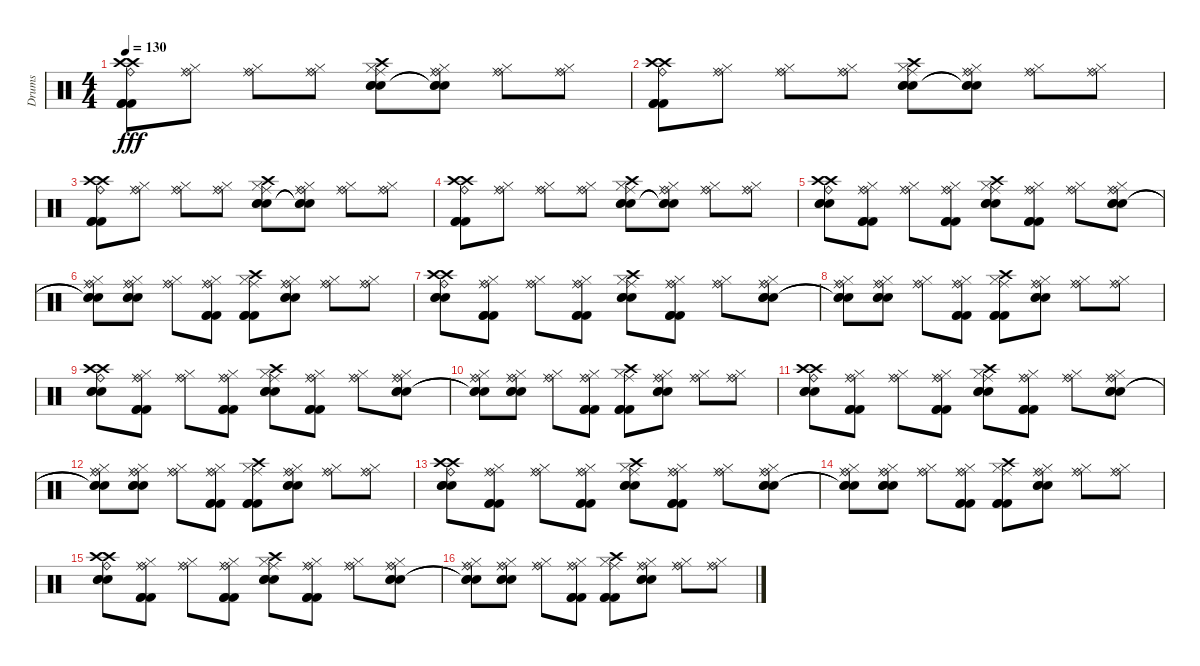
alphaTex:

\track ("Drums" "Drums") {instrument percussion}
\staff {score}
\articulation defaults
\ts (4 4)
\tempo 130
\clef neutral
\ks c
("Ride (bell)" "Crash high (hit)" "Crash high (hit)" "Kick (hit) 2" "Kick (hit) 2" "Kick (hit) 2").8{dy fff} ("Ride (bell)" "Ride (middle)" "Hi-Hat (closed)").8 ("Ride (bell)" "Ride (middle)" "Hi-Hat (closed)").8 ("Ride (bell)" "Ride (middle)" "Hi-Hat (closed)").8 ("Crash high (hit)" "Ride (middle)" "Hi-Hat (closed)" "Snare (hit) 2" "Snare (hit) 2" "Snare (hit) 2").8 ("Ride (bell)" "Ride (middle)" "Hi-Hat (closed)" "Snare (hit)"{t} "Snare (hit)"{t} "Snare (hit)"{t}).8 ("Ride (bell)" "Ride (middle)" "Hi-Hat (closed)").8 ("Ride (bell)" "Ride (middle)" "Hi-Hat (closed)").8 |
("Ride (bell)" "Crash high (hit)" "Crash high (hit)" "Kick (hit) 2" "Kick (hit) 2" "Kick (hit) 2").8 ("Ride (bell)" "Ride (middle)" "Hi-Hat (closed)").8 ("Ride (bell)" "Ride (middle)" "Hi-Hat (closed)").8 ("Ride (bell)" "Ride (middle)" "Hi-Hat (closed)").8 ("Crash high (hit)" "Ride (middle)" "Hi-Hat (closed)" "Snare (hit) 2" "Snare (hit) 2" "Snare (hit) 2").8 ("Ride (bell)" "Ride (middle)" "Hi-Hat (closed)" "Snare (hit)"{t} "Snare (hit)"{t} "Snare (hit)"{t}).8 ("Ride (bell)" "Ride (middle)" "Hi-Hat (closed)").8 ("Ride (bell)" "Ride (middle)" "Hi-Hat (closed)").8 |
("Ride (bell)" "Crash high (hit)" "Crash high (hit)" "Kick (hit) 2" "Kick (hit) 2" "Kick (hit) 2").8 ("Ride (bell)" "Ride (middle)" "Hi-Hat (closed)").8 ("Ride (bell)" "Ride (middle)" "Hi-Hat (closed)").8 ("Ride (bell)" "Ride (middle)" "Hi-Hat (closed)").8 ("Crash high (hit)" "Ride (middle)" "Hi-Hat (closed)" "Snare (hit) 2" "Snare (hit) 2" "Snare (hit) 2").8 ("Ride (bell)" "Ride (middle)" "Hi-Hat (closed)" "Snare (hit)"{t} "Snare (hit)"{t} "Snare (hit)"{t}).8 ("Ride (bell)" "Ride (middle)" "Hi-Hat (closed)").8 ("Ride (bell)" "Ride (middle)" "Hi-Hat (closed)").8 |
("Ride (bell)" "Crash high (hit)" "Crash high (hit)" "Kick (hit) 2" "Kick (hit) 2" "Kick (hit) 2").8 ("Ride (bell)" "Ride (middle)" "Hi-Hat (closed)").8 ("Ride (bell)" "Ride (middle)" "Hi-Hat (closed)").8 ("Ride (bell)" "Ride (middle)" "Hi-Hat (closed)").8 ("Crash high (hit)" "Ride (middle)" "Hi-Hat (closed)" "Snare (hit) 2" "Snare (hit) 2" "Snare (hit) 2").8 ("Ride (bell)" "Ride (middle)" "Hi-Hat (closed)" "Snare (hit)"{t} "Snare (hit)"{t} "Snare (hit)"{t}).8 ("Ride (bell)" "Ride (middle)" "Hi-Hat (closed)").8 ("Ride (bell)" "Ride (middle)" "Hi-Hat (closed)").8 |
("Ride (bell)" "Crash high (hit)" "Crash high (hit)" "Snare (hit) 2" "Snare (hit) 2" "Snare (hit) 2").8 ("Ride (bell)" "Ride (middle)" "Hi-Hat (closed)" "Kick (hit) 2" "Kick (hit) 2" "Kick (hit) 2").8 ("Ride (bell)" "Ride (middle)" "Hi-Hat (closed)").8 ("Ride (bell)" "Ride (middle)" "Hi-Hat (closed)" "Kick (hit) 2" "Kick (hit) 2" "Kick (hit) 2").8 ("Crash high (hit)" "Ride (middle)" "Hi-Hat (closed)" "Snare (hit) 2" "Snare (hit) 2" "Snare (hit) 2").8 ("Ride (bell)" "Ride (middle)" "Hi-Hat (closed)" "Kick (hit) 2" "Kick (hit) 2" "Kick (hit) 2").8 ("Ride (bell)" "Ride (middle)" "Hi-Hat (closed)").8 ("Ride (bell)" "Ride (middle)" "Hi-Hat (closed)" "Snare (hit) 2" "Snare (hit) 2" "Snare (hit) 2").8 |
("Ride (bell)" "Ride (middle)" "Hi-Hat (closed)" "Snare (hit) 2"{t} "Snare (hit) 2"{t} "Snare (hit) 2"{t}).8 ("Ride (bell)" "Ride (middle)" "Hi-Hat (closed)" "Snare (hit) 2" "Snare (hit) 2" "Snare (hit) 2").8 ("Ride (bell)" "Ride (middle)" "Hi-Hat (closed)").8 ("Ride (bell)" "Ride (middle)" "Hi-Hat (closed)" "Kick (hit) 2" "Kick (hit) 2" "Kick (hit) 2").8 ("Crash high (hit)" "Ride (middle)" "Hi-Hat (closed)" "Kick (hit) 2" "Kick (hit) 2" "Kick (hit) 2").8 ("Ride (bell)" "Ride (middle)" "Hi-Hat (closed)" "Snare (hit) 2" "Snare (hit) 2" "Snare (hit) 2").8 ("Ride (bell)" "Ride (middle)" "Hi-Hat (closed)").8 ("Ride (bell)" "Ride (middle)" "Hi-Hat (closed)").8 |
("Ride (bell)" "Crash high (hit)" "Crash high (hit)" "Snare (hit) 2" "Snare (hit) 2" "Snare (hit) 2").8 ("Ride (bell)" "Ride (middle)" "Hi-Hat (closed)" "Kick (hit) 2" "Kick (hit) 2" "Kick (hit) 2").8 ("Ride (bell)" "Ride (middle)" "Hi-Hat (closed)").8 ("Ride (bell)" "Ride (middle)" "Hi-Hat (closed)" "Kick (hit) 2" "Kick (hit) 2" "Kick (hit) 2").8 ("Crash high (hit)" "Ride (middle)" "Hi-Hat (closed)" "Snare (hit) 2" "Snare (hit) 2" "Snare (hit) 2").8 ("Ride (bell)" "Ride (middle)" "Hi-Hat (closed)" "Kick (hit) 2" "Kick (hit) 2" "Kick (hit) 2").8 ("Ride (bell)" "Ride (middle)" "Hi-Hat (closed)").8 ("Ride (bell)" "Ride (middle)" "Hi-Hat (closed)" "Snare (hit) 2" "Snare (hit) 2" "Snare (hit) 2").8 |
("Ride (bell)" "Ride (middle)" "Hi-Hat (closed)" "Snare (hit) 2"{t} "Snare (hit) 2"{t} "Snare (hit) 2"{t}).8 ("Ride (bell)" "Ride (middle)" "Hi-Hat (closed)" "Snare (hit) 2" "Snare (hit) 2" "Snare (hit) 2").8 ("Ride (bell)" "Ride (middle)" "Hi-Hat (closed)").8 ("Ride (bell)" "Ride (middle)" "Hi-Hat (closed)" "Kick (hit) 2" "Kick (hit) 2" "Kick (hit) 2").8 ("Crash high (hit)" "Ride (middle)" "Hi-Hat (closed)" "Kick (hit) 2" "Kick (hit) 2" "Kick (hit) 2").8 ("Ride (bell)" "Ride (middle)" "Hi-Hat (closed)" "Snare (hit) 2" "Snare (hit) 2" "Snare (hit) 2").8 ("Ride (bell)" "Ride (middle)" "Hi-Hat (closed)").8 ("Ride (bell)" "Ride (middle)" "Hi-Hat (closed)").8 |
("Ride (bell)" "Crash high (hit)" "Crash high (hit)" "Snare (hit) 2" "Snare (hit) 2" "Snare (hit) 2").8 ("Ride (bell)" "Ride (middle)" "Hi-Hat (closed)" "Kick (hit) 2" "Kick (hit) 2" "Kick (hit) 2").8 ("Ride (bell)" "Ride (middle)" "Hi-Hat (closed)").8 ("Ride (bell)" "Ride (middle)" "Hi-Hat (closed)" "Kick (hit) 2" "Kick (hit) 2" "Kick (hit) 2").8 ("Crash high (hit)" "Ride (middle)" "Hi-Hat (closed)" "Snare (hit) 2" "Snare (hit) 2" "Snare (hit) 2").8 ("Ride (bell)" "Ride (middle)" "Hi-Hat (closed)" "Kick (hit) 2" "Kick (hit) 2" "Kick (hit) 2").8 ("Ride (bell)" "Ride (middle)" "Hi-Hat (closed)").8 ("Ride (bell)" "Ride (middle)" "Hi-Hat (closed)" "Snare (hit) 2" "Snare (hit) 2" "Snare (hit) 2").8 |
("Ride (bell)" "Ride (middle)" "Hi-Hat (closed)" "Snare (hit) 2"{t} "Snare (hit) 2"{t} "Snare (hit) 2"{t}).8 ("Ride (bell)" "Ride (middle)" "Hi-Hat (closed)" "Snare (hit) 2" "Snare (hit) 2" "Snare (hit) 2").8 ("Ride (bell)" "Ride (middle)" "Hi-Hat (closed)").8 ("Ride (bell)" "Ride (middle)" "Hi-Hat (closed)" "Kick (hit) 2" "Kick (hit) 2" "Kick (hit) 2").8 ("Crash high (hit)" "Ride (middle)" "Hi-Hat (closed)" "Kick (hit) 2" "Kick (hit) 2" "Kick (hit) 2").8 ("Ride (bell)" "Ride (middle)" "Hi-Hat (closed)" "Snare (hit) 2" "Snare (hit) 2" "Snare (hit) 2").8 ("Ride (bell)" "Ride (middle)" "Hi-Hat (closed)").8 ("Ride (bell)" "Ride (middle)" "Hi-Hat (closed)").8 |
("Ride (bell)" "Crash high (hit)" "Crash high (hit)" "Snare (hit) 2" "Snare (hit) 2" "Snare (hit) 2").8 ("Ride (bell)" "Ride (middle)" "Hi-Hat (closed)" "Kick (hit) 2" "Kick (hit) 2" "Kick (hit) 2").8 ("Ride (bell)" "Ride (middle)" "Hi-Hat (closed)").8 ("Ride (bell)" "Ride (middle)" "Hi-Hat (closed)" "Kick (hit) 2" "Kick (hit) 2" "Kick (hit) 2").8 ("Crash high (hit)" "Ride (middle)" "Hi-Hat (closed)" "Snare (hit) 2" "Snare (hit) 2" "Snare (hit) 2").8 ("Ride (bell)" "Ride (middle)" "Hi-Hat (closed)" "Kick (hit) 2" "Kick (hit) 2" "Kick (hit) 2").8 ("Ride (bell)" "Ride (middle)" "Hi-Hat (closed)").8 ("Ride (bell)" "Ride (middle)" "Hi-Hat (closed)" "Snare (hit) 2" "Snare (hit) 2" "Snare (hit) 2").8 |
("Ride (bell)" "Ride (middle)" "Hi-Hat (closed)" "Snare (hit) 2"{t} "Snare (hit) 2"{t} "Snare (hit) 2"{t}).8 ("Ride (bell)" "Ride (middle)" "Hi-Hat (closed)" "Snare (hit) 2" "Snare (hit) 2" "Snare (hit) 2").8 ("Ride (bell)" "Ride (middle)" "Hi-Hat (closed)").8 ("Ride (bell)" "Ride (middle)" "Hi-Hat (closed)" "Kick (hit) 2" "Kick (hit) 2" "Kick (hit) 2").8 ("Crash high (hit)" "Ride (middle)" "Hi-Hat (closed)" "Kick (hit) 2" "Kick (hit) 2" "Kick (hit) 2").8 ("Ride (bell)" "Ride (middle)" "Hi-Hat (closed)" "Snare (hit) 2" "Snare (hit) 2" "Snare (hit) 2").8 ("Ride (bell)" "Ride (middle)" "Hi-Hat (closed)").8 ("Ride (bell)" "Ride (middle)" "Hi-Hat (closed)").8 |
("Ride (bell)" "Crash high (hit)" "Crash high (hit)" "Snare (hit) 2" "Snare (hit) 2" "Snare (hit) 2").8 ("Ride (bell)" "Ride (middle)" "Hi-Hat (closed)" "Kick (hit) 2" "Kick (hit) 2" "Kick (hit) 2").8 ("Ride (bell)" "Ride (middle)" "Hi-Hat (closed)").8 ("Ride (bell)" "Ride (middle)" "Hi-Hat (closed)" "Kick (hit) 2" "Kick (hit) 2" "Kick (hit) 2").8 ("Crash high (hit)" "Ride (middle)" "Hi-Hat (closed)" "Snare (hit) 2" "Snare (hit) 2" "Snare (hit) 2").8 ("Ride (bell)" "Ride (middle)" "Hi-Hat (closed)" "Kick (hit) 2" "Kick (hit) 2" "Kick (hit) 2").8 ("Ride (bell)" "Ride (middle)" "Hi-Hat (closed)").8 ("Ride (bell)" "Ride (middle)" "Hi-Hat (closed)" "Snare (hit) 2" "Snare (hit) 2" "Snare (hit) 2").8 |
("Ride (bell)" "Ride (middle)" "Hi-Hat (closed)" "Snare (hit) 2"{t} "Snare (hit) 2"{t} "Snare (hit) 2"{t}).8 ("Ride (bell)" "Ride (middle)" "Hi-Hat (closed)" "Snare (hit) 2" "Snare (hit) 2" "Snare (hit) 2").8 ("Ride (bell)" "Ride (middle)" "Hi-Hat (closed)").8 ("Ride (bell)" "Ride (middle)" "Hi-Hat (closed)" "Kick (hit) 2" "Kick (hit) 2" "Kick (hit) 2").8 ("Crash high (hit)" "Ride (middle)" "Hi-Hat (closed)" "Kick (hit) 2" "Kick (hit) 2" "Kick (hit) 2").8 ("Ride (bell)" "Ride (middle)" "Hi-Hat (closed)" "Snare (hit) 2" "Snare (hit) 2" "Snare (hit) 2").8 ("Ride (bell)" "Ride (middle)" "Hi-Hat (closed)").8 ("Ride (bell)" "Ride (middle)" "Hi-Hat (closed)").8 |
("Ride (bell)" "Crash high (hit)" "Crash high (hit)" "Snare (hit) 2" "Snare (hit) 2" "Snare (hit) 2").8 ("Ride (bell)" "Ride (middle)" "Hi-Hat (closed)" "Kick (hit) 2" "Kick (hit) 2" "Kick (hit) 2").8 ("Ride (bell)" "Ride (middle)" "Hi-Hat (closed)").8 ("Ride (bell)" "Ride (middle)" "Hi-Hat (closed)" "Kick (hit) 2" "Kick (hit) 2" "Kick (hit) 2").8 ("Crash high (hit)" "Ride (middle)" "Hi-Hat (closed)" "Snare (hit) 2" "Snare (hit) 2" "Snare (hit) 2").8 ("Ride (bell)" "Ride (middle)" "Hi-Hat (closed)" "Kick (hit) 2" "Kick (hit) 2" "Kick (hit) 2").8 ("Ride (bell)" "Ride (middle)" "Hi-Hat (closed)").8 ("Ride (bell)" "Ride (middle)" "Hi-Hat (closed)" "Snare (hit) 2" "Snare (hit) 2" "Snare (hit) 2").8 |
("Ride (bell)" "Ride (middle)" "Hi-Hat (closed)" "Snare (hit) 2"{t} "Snare (hit) 2"{t} "Snare (hit) 2"{t}).8 ("Ride (bell)" "Ride (middle)" "Hi-Hat (closed)" "Snare (hit) 2" "Snare (hit) 2" "Snare (hit) 2").8 ("Ride (bell)" "Ride (middle)" "Hi-Hat (closed)").8 ("Ride (bell)" "Ride (middle)" "Hi-Hat (closed)" "Kick (hit) 2" "Kick (hit) 2" "Kick (hit) 2").8 ("Crash high (hit)" "Ride (middle)" "Hi-Hat (closed)" "Kick (hit) 2" "Kick (hit) 2" "Kick (hit) 2").8 ("Ride (bell)" "Ride (middle)" "Hi-Hat (closed)" "Snare (hit) 2" "Snare (hit) 2" "Snare (hit) 2").8 ("Ride (bell)" "Ride (middle)" "Hi-Hat (closed)").8 ("Ride (bell)" "Ride (middle)" "Hi-Hat (closed)").8
